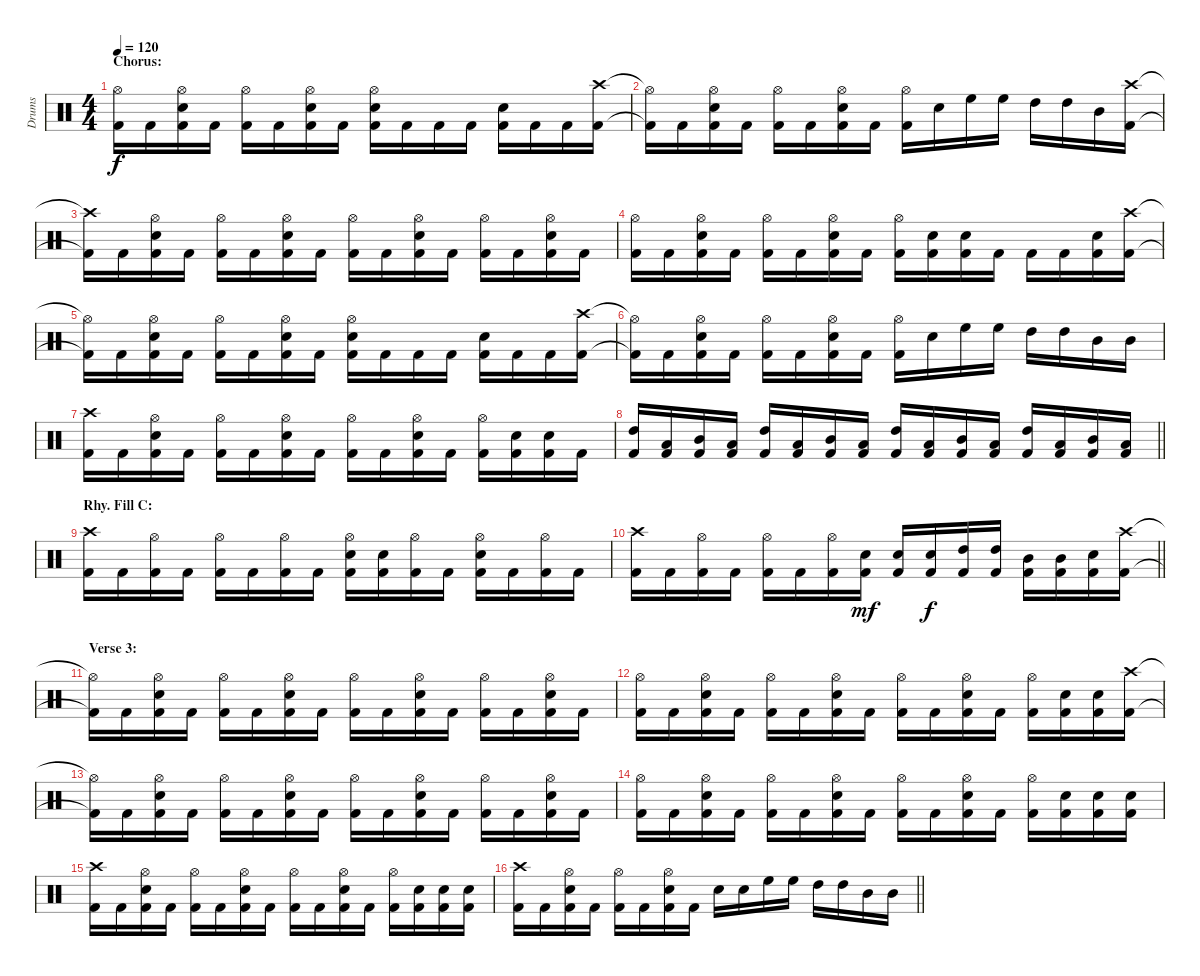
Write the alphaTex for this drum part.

\track ("Drums" "Drums") {instrument percussion}
\staff {score}
\articulation defaults
\ts (4 4)
\section ("" "Chorus:")
\tempo 120
\clef neutral
\ks c
("Hi-Hat (open)"{t} "Kick (hit) 2"{t}).16{dy f} "Kick (hit) 2".16 ("Hi-Hat (open)" "Electric Snare (hit)" "Kick (hit) 2").16 "Kick (hit) 2".16 ("Hi-Hat (open)" "Kick (hit) 2").16 "Kick (hit) 2".16 ("Hi-Hat (open)" "Electric Snare (hit)" "Kick (hit) 2").16 "Kick (hit) 2".16 ("Hi-Hat (open)" "Electric Snare (hit)" "Kick (hit) 2").16 "Kick (hit) 2".16 "Kick (hit) 2".16 "Kick (hit) 2".16 ("Electric Snare (hit)" "Kick (hit) 2").16 "Kick (hit) 2".16 "Kick (hit) 2".16 ("Crash high (hit)" "Kick (hit) 2").16 |
("Hi-Hat (open)"{t} "Kick (hit) 2"{t}).16 "Kick (hit) 2".16 ("Hi-Hat (open)" "Electric Snare (hit)" "Kick (hit) 2").16 "Kick (hit) 2".16 ("Hi-Hat (open)" "Kick (hit) 2").16 "Kick (hit) 2".16 ("Hi-Hat (open)" "Electric Snare (hit)" "Kick (hit) 2").16 "Kick (hit) 2".16 ("Hi-Hat (open)" "Kick (hit) 2").16 "Electric Snare (hit)".16 "High Floor Tom (hit)".16 "High Floor Tom (hit)".16 "High Tom (hit)".16 "High Tom (hit)".16 "Mid Tom (hit)".16 ("Crash high (hit)" "Kick (hit) 2").16 |
("Crash high (hit)"{t} "Kick (hit) 2"{t}).16 "Kick (hit) 2".16 ("Hi-Hat (open)" "Electric Snare (hit)" "Kick (hit) 2").16 "Kick (hit) 2".16 ("Hi-Hat (open)" "Kick (hit) 2").16 "Kick (hit) 2".16 ("Hi-Hat (open)" "Electric Snare (hit)" "Kick (hit) 2").16 "Kick (hit) 2".16 ("Hi-Hat (open)" "Kick (hit) 2").16 "Kick (hit) 2".16 ("Hi-Hat (open)" "Electric Snare (hit)" "Kick (hit) 2").16 "Kick (hit) 2".16 ("Hi-Hat (open)" "Kick (hit) 2").16 "Kick (hit) 2".16 ("Hi-Hat (open)" "Electric Snare (hit)" "Kick (hit) 2").16 "Kick (hit) 2".16 |
("Hi-Hat (open)" "Kick (hit) 2").16 "Kick (hit) 2".16 ("Hi-Hat (open)" "Electric Snare (hit)" "Kick (hit) 2").16 "Kick (hit) 2".16 ("Hi-Hat (open)" "Kick (hit) 2").16 "Kick (hit) 2".16 ("Hi-Hat (open)" "Electric Snare (hit)" "Kick (hit) 2").16 "Kick (hit) 2".16 ("Hi-Hat (open)" "Kick (hit) 2").16 ("Electric Snare (hit)" "Kick (hit) 2").16 ("Electric Snare (hit)" "Kick (hit) 2").16 "Kick (hit) 2".16 "Kick (hit) 2".16 "Kick (hit) 2".16 ("Electric Snare (hit)" "Kick (hit) 2").16 ("Crash high (hit)" "Kick (hit) 2").16 |
("Hi-Hat (open)"{t} "Kick (hit) 2"{t}).16 "Kick (hit) 2".16 ("Hi-Hat (open)" "Electric Snare (hit)" "Kick (hit) 2").16 "Kick (hit) 2".16 ("Hi-Hat (open)" "Kick (hit) 2").16 "Kick (hit) 2".16 ("Hi-Hat (open)" "Electric Snare (hit)" "Kick (hit) 2").16 "Kick (hit) 2".16 ("Hi-Hat (open)" "Electric Snare (hit)" "Kick (hit) 2").16 "Kick (hit) 2".16 "Kick (hit) 2".16 "Kick (hit) 2".16 ("Electric Snare (hit)" "Kick (hit) 2").16 "Kick (hit) 2".16 "Kick (hit) 2".16 ("Crash high (hit)" "Kick (hit) 2").16 |
("Hi-Hat (open)"{t} "Kick (hit) 2"{t}).16 "Kick (hit) 2".16 ("Hi-Hat (open)" "Electric Snare (hit)" "Kick (hit) 2").16 "Kick (hit) 2".16 ("Hi-Hat (open)" "Kick (hit) 2").16 "Kick (hit) 2".16 ("Hi-Hat (open)" "Electric Snare (hit)" "Kick (hit) 2").16 "Kick (hit) 2".16 ("Hi-Hat (open)" "Kick (hit) 2").16 "Electric Snare (hit)".16 "High Floor Tom (hit)".16 "High Floor Tom (hit)".16 "High Tom (hit)".16 "High Tom (hit)".16 "Mid Tom (hit)".16 "Mid Tom (hit)".16 |
("Crash high (hit)" "Kick (hit) 2").16 "Kick (hit) 2".16 ("Hi-Hat (open)" "Electric Snare (hit)" "Kick (hit) 2").16 "Kick (hit) 2".16 ("Hi-Hat (open)" "Kick (hit) 2").16 "Kick (hit) 2".16 ("Hi-Hat (open)" "Electric Snare (hit)" "Kick (hit) 2").16 "Kick (hit) 2".16 ("Hi-Hat (open)" "Kick (hit) 2").16 "Kick (hit) 2".16 ("Hi-Hat (open)" "Electric Snare (hit)" "Kick (hit) 2").16 "Kick (hit) 2".16 ("Hi-Hat (open)" "Kick (hit) 2").16 ("Electric Snare (hit)" "Kick (hit) 2").16 ("Electric Snare (hit)" "Kick (hit) 2").16 "Kick (hit) 2".16 |
\barLineRight lightlight
("High Tom (hit)" "Kick (hit) 2").16 ("Low Tom (hit)" "Kick (hit) 2").16 ("Mid Tom (hit)" "Kick (hit) 2").16 ("Low Tom (hit)" "Kick (hit) 2").16 ("High Tom (hit)" "Kick (hit) 2").16 ("Low Tom (hit)" "Kick (hit) 2").16 ("Mid Tom (hit)" "Kick (hit) 2").16 ("Low Tom (hit)" "Kick (hit) 2").16 ("High Tom (hit)" "Kick (hit) 2").16 ("Low Tom (hit)" "Kick (hit) 2").16 ("Mid Tom (hit)" "Kick (hit) 2").16 ("Low Tom (hit)" "Kick (hit) 2").16 ("High Tom (hit)" "Kick (hit) 2").16 ("Low Tom (hit)" "Kick (hit) 2").16 ("Mid Tom (hit)" "Kick (hit) 2").16 ("Low Tom (hit)" "Kick (hit) 2").16 |
\section ("" "Rhy. Fill C:")
("Crash high (hit)" "Kick (hit) 2").16 "Kick (hit) 2".16 ("Hi-Hat (open)" "Kick (hit) 2").16 "Kick (hit) 2".16 ("Hi-Hat (open)" "Kick (hit) 2").16 "Kick (hit) 2".16 ("Hi-Hat (open)" "Kick (hit) 2").16 "Kick (hit) 2".16 ("Hi-Hat (open)" "Electric Snare (hit)" "Kick (hit) 2").16 ("Electric Snare (hit)" "Kick (hit) 2").16 ("Hi-Hat (open)" "Kick (hit) 2").16 "Kick (hit) 2".16 ("Hi-Hat (open)" "Electric Snare (hit)" "Kick (hit) 2").16 "Kick (hit) 2".16 ("Hi-Hat (open)" "Kick (hit) 2").16 "Kick (hit) 2".16 |
\barLineRight lightlight
("Crash high (hit)" "Kick (hit) 2").16 "Kick (hit) 2".16 ("Hi-Hat (open)" "Kick (hit) 2").16 "Kick (hit) 2".16 ("Hi-Hat (open)" "Kick (hit) 2").16 "Kick (hit) 2".16 ("Hi-Hat (open)" "Kick (hit) 2").16 ("Electric Snare (hit)" "Kick (hit) 2").16{dy mf} ("Electric Snare (hit)" "Kick (hit) 2").16 ("Electric Snare (hit)" "Kick (hit) 2").16{dy f} ("High Tom (hit)" "Kick (hit) 2").16 ("High Tom (hit)" "Kick (hit) 2").16 ("Mid Tom (hit)" "Kick (hit) 2").16 ("Mid Tom (hit)" "Kick (hit) 2").16 ("Electric Snare (hit)" "Kick (hit) 2").16 ("Crash high (hit)" "Kick (hit) 2").16 |
\section ("" "Verse 3:")
("Hi-Hat (open)"{t} "Kick (hit) 2"{t}).16 "Kick (hit) 2".16 ("Hi-Hat (open)" "Electric Snare (hit)" "Kick (hit) 2").16 "Kick (hit) 2".16 ("Hi-Hat (open)" "Kick (hit) 2").16 "Kick (hit) 2".16 ("Hi-Hat (open)" "Electric Snare (hit)" "Kick (hit) 2").16 "Kick (hit) 2".16 ("Hi-Hat (open)" "Kick (hit) 2").16 "Kick (hit) 2".16 ("Hi-Hat (open)" "Electric Snare (hit)" "Kick (hit) 2").16 "Kick (hit) 2".16 ("Hi-Hat (open)" "Kick (hit) 2").16 "Kick (hit) 2".16 ("Hi-Hat (open)" "Electric Snare (hit)" "Kick (hit) 2").16 "Kick (hit) 2".16 |
("Hi-Hat (open)" "Kick (hit) 2").16 "Kick (hit) 2".16 ("Hi-Hat (open)" "Electric Snare (hit)" "Kick (hit) 2").16 "Kick (hit) 2".16 ("Hi-Hat (open)" "Kick (hit) 2").16 "Kick (hit) 2".16 ("Hi-Hat (open)" "Electric Snare (hit)" "Kick (hit) 2").16 "Kick (hit) 2".16 ("Hi-Hat (open)" "Kick (hit) 2").16 "Kick (hit) 2".16 ("Hi-Hat (open)" "Electric Snare (hit)" "Kick (hit) 2").16 "Kick (hit) 2".16 ("Hi-Hat (open)" "Kick (hit) 2").16 ("Electric Snare (hit)" "Kick (hit) 2").16 ("Electric Snare (hit)" "Kick (hit) 2").16 ("Crash high (hit)" "Kick (hit) 2").16 |
("Hi-Hat (open)"{t} "Kick (hit) 2"{t}).16 "Kick (hit) 2".16 ("Hi-Hat (open)" "Electric Snare (hit)" "Kick (hit) 2").16 "Kick (hit) 2".16 ("Hi-Hat (open)" "Kick (hit) 2").16 "Kick (hit) 2".16 ("Hi-Hat (open)" "Electric Snare (hit)" "Kick (hit) 2").16 "Kick (hit) 2".16 ("Hi-Hat (open)" "Kick (hit) 2").16 "Kick (hit) 2".16 ("Hi-Hat (open)" "Electric Snare (hit)" "Kick (hit) 2").16 "Kick (hit) 2".16 ("Hi-Hat (open)" "Kick (hit) 2").16 "Kick (hit) 2".16 ("Hi-Hat (open)" "Electric Snare (hit)" "Kick (hit) 2").16 "Kick (hit) 2".16 |
("Hi-Hat (open)" "Kick (hit) 2").16 "Kick (hit) 2".16 ("Hi-Hat (open)" "Electric Snare (hit)" "Kick (hit) 2").16 "Kick (hit) 2".16 ("Hi-Hat (open)" "Kick (hit) 2").16 "Kick (hit) 2".16 ("Hi-Hat (open)" "Electric Snare (hit)" "Kick (hit) 2").16 "Kick (hit) 2".16 ("Hi-Hat (open)" "Kick (hit) 2").16 "Kick (hit) 2".16 ("Hi-Hat (open)" "Electric Snare (hit)" "Kick (hit) 2").16 "Kick (hit) 2".16 ("Hi-Hat (open)" "Kick (hit) 2").16 ("Electric Snare (hit)" "Kick (hit) 2").16 ("Electric Snare (hit)" "Kick (hit) 2").16 ("Electric Snare (hit)" "Kick (hit) 2").16 |
("Crash high (hit)" "Kick (hit) 2").16 "Kick (hit) 2".16 ("Hi-Hat (open)" "Electric Snare (hit)" "Kick (hit) 2").16 "Kick (hit) 2".16 ("Hi-Hat (open)" "Kick (hit) 2").16 "Kick (hit) 2".16 ("Hi-Hat (open)" "Electric Snare (hit)" "Kick (hit) 2").16 "Kick (hit) 2".16 ("Hi-Hat (open)" "Kick (hit) 2").16 "Kick (hit) 2".16 ("Hi-Hat (open)" "Electric Snare (hit)" "Kick (hit) 2").16 "Kick (hit) 2".16 ("Hi-Hat (open)" "Kick (hit) 2").16 ("Electric Snare (hit)" "Kick (hit) 2").16 ("Electric Snare (hit)" "Kick (hit) 2").16 ("Electric Snare (hit)" "Kick (hit) 2").16 |
\barLineRight lightlight
("Crash high (hit)" "Kick (hit) 2").16 "Kick (hit) 2".16 ("Hi-Hat (open)" "Electric Snare (hit)" "Kick (hit) 2").16 "Kick (hit) 2".16 ("Hi-Hat (open)" "Kick (hit) 2").16 "Kick (hit) 2".16 ("Hi-Hat (open)" "Electric Snare (hit)" "Kick (hit) 2").16 "Kick (hit) 2".16 "Electric Snare (hit)".16 "Electric Snare (hit)".16 "High Floor Tom (hit)".16 "High Floor Tom (hit)".16 "High Tom (hit)".16 "High Tom (hit)".16 "Mid Tom (hit)".16 "Mid Tom (hit)".16
